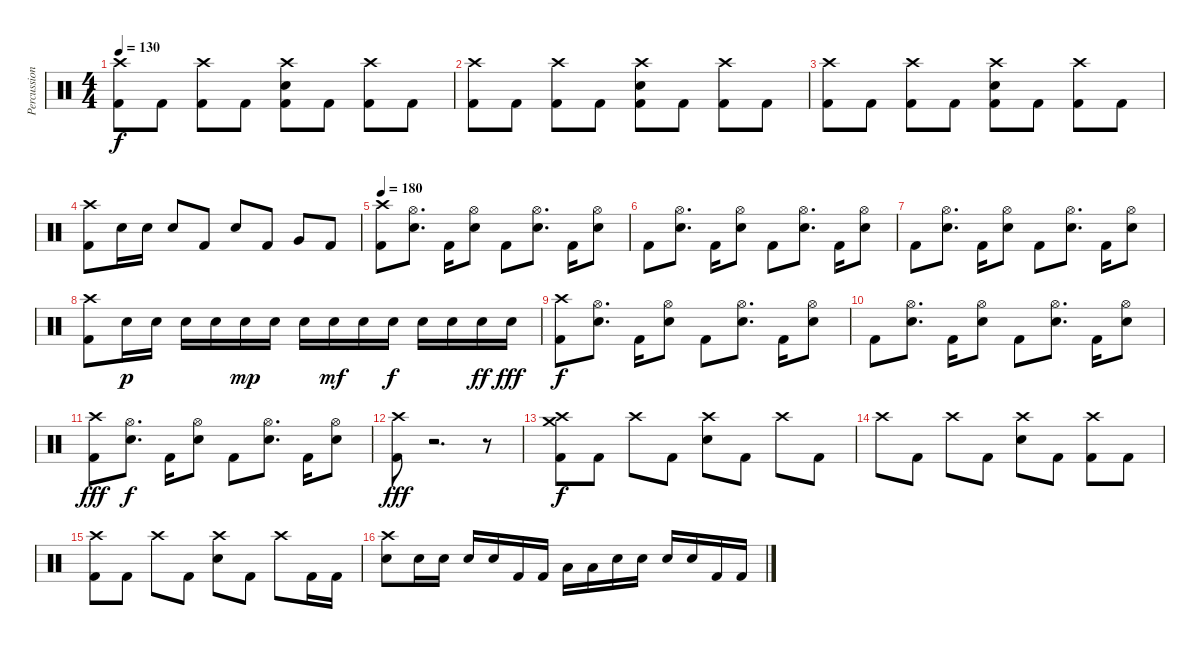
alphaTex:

\track ("Percussion" "Percussion") {instrument percussion}
\staff {score}
\articulation defaults
\ts (4 4)
\tempo 130
\clef neutral
\ks c
("Crash high (hit)" "Kick (hit) 2").8{dy f} "Kick (hit) 2".8 ("Crash high (hit)" "Kick (hit) 2").8 "Kick (hit) 2".8 ("Crash high (hit)" "Electric Snare (hit)" "Kick (hit) 2").8 "Kick (hit) 2".8 ("Crash high (hit)" "Kick (hit) 2").8 "Kick (hit) 2".8 |
("Crash high (hit)" "Kick (hit) 2").8 "Kick (hit) 2".8 ("Crash high (hit)" "Kick (hit) 2").8 "Kick (hit) 2".8 ("Crash high (hit)" "Electric Snare (hit)" "Kick (hit) 2").8 "Kick (hit) 2".8 ("Crash high (hit)" "Kick (hit) 2").8 "Kick (hit) 2".8 |
("Crash high (hit)" "Kick (hit) 2").8 "Kick (hit) 2".8 ("Crash high (hit)" "Kick (hit) 2").8 "Kick (hit) 2".8 ("Crash high (hit)" "Electric Snare (hit)" "Kick (hit) 2").8 "Kick (hit) 2".8 ("Crash high (hit)" "Kick (hit) 2").8 "Kick (hit) 2".8 |
("Crash high (hit)" "Kick (hit) 2").8 "Electric Snare (hit)".16 "Electric Snare (hit)".16 "Electric Snare (hit)".8 "Kick (hit) 2".8 "Electric Snare (hit)".8 "Kick (hit) 2".8 "Very Low Tom (hit)".8 "Kick (hit) 2".8 |
\tempo 180
("Crash high (hit)" "Kick (hit) 2").8 ("Hi-Hat (open)" "Electric Snare (hit)").8{d} "Kick (hit) 2".16 ("Hi-Hat (open)" "Electric Snare (hit)").8 "Kick (hit) 2".8 ("Hi-Hat (open)" "Electric Snare (hit)").8{d} "Kick (hit) 2".16 ("Hi-Hat (open)" "Electric Snare (hit)").8 |
"Kick (hit) 2".8 ("Hi-Hat (open)" "Electric Snare (hit)").8{d} "Kick (hit) 2".16 ("Hi-Hat (open)" "Electric Snare (hit)").8 "Kick (hit) 2".8 ("Hi-Hat (open)" "Electric Snare (hit)").8{d} "Kick (hit) 2".16 ("Hi-Hat (open)" "Electric Snare (hit)").8 |
"Kick (hit) 2".8 ("Hi-Hat (open)" "Electric Snare (hit)").8{d} "Kick (hit) 2".16 ("Hi-Hat (open)" "Electric Snare (hit)").8 "Kick (hit) 2".8 ("Hi-Hat (open)" "Electric Snare (hit)").8{d} "Kick (hit) 2".16 ("Hi-Hat (open)" "Electric Snare (hit)").8 |
("Crash high (hit)" "Kick (hit) 2").8 "Electric Snare (hit)".16{dy p} "Electric Snare (hit)".16 "Electric Snare (hit)".16 "Electric Snare (hit)".16 "Electric Snare (hit)".16{dy mp} "Electric Snare (hit)".16 "Electric Snare (hit)".16 "Electric Snare (hit)".16{dy mf} "Electric Snare (hit)".16 "Electric Snare (hit)".16{dy f} "Electric Snare (hit)".16 "Electric Snare (hit)".16 "Electric Snare (hit)".16{dy ff} "Electric Snare (hit)".16{dy fff} |
("Crash high (hit)" "Kick (hit) 2").8{dy f} ("Hi-Hat (open)" "Electric Snare (hit)").8{d} "Kick (hit) 2".16 ("Hi-Hat (open)" "Electric Snare (hit)").8 "Kick (hit) 2".8 ("Hi-Hat (open)" "Electric Snare (hit)").8{d} "Kick (hit) 2".16 ("Hi-Hat (open)" "Electric Snare (hit)").8 |
"Kick (hit) 2".8 ("Hi-Hat (open)" "Electric Snare (hit)").8{d} "Kick (hit) 2".16 ("Hi-Hat (open)" "Electric Snare (hit)").8 "Kick (hit) 2".8 ("Hi-Hat (open)" "Electric Snare (hit)").8{d} "Kick (hit) 2".16 ("Hi-Hat (open)" "Electric Snare (hit)").8 |
("Crash high (hit)" "Kick (hit) 2").8{dy fff} ("Hi-Hat (open)" "Electric Snare (hit)").8{d dy f} "Kick (hit) 2".16 ("Hi-Hat (open)" "Electric Snare (hit)").8 "Kick (hit) 2".8 ("Hi-Hat (open)" "Electric Snare (hit)").8{d} "Kick (hit) 2".16 ("Hi-Hat (open)" "Electric Snare (hit)").8 |
("Crash high (hit)" "Kick (hit) 2").8{dy fff} r.2{d volume 0} r.8 |
("Crash high (hit)" "Crash medium (hit)" "Kick (hit) 2").8{dy f volume 13} "Kick (hit) 2".8 "Crash high (hit)".8 "Kick (hit) 2".8 ("Crash high (hit)" "Electric Snare (hit)").8 "Kick (hit) 2".8 "Crash high (hit)".8 "Kick (hit) 2".8 |
"Crash high (hit)".8 "Kick (hit) 2".8 "Crash high (hit)".8 "Kick (hit) 2".8 ("Crash high (hit)" "Electric Snare (hit)").8 "Kick (hit) 2".8 ("Crash high (hit)" "Kick (hit) 2").8 "Kick (hit) 2".8 |
("Crash high (hit)" "Kick (hit) 2").8 "Kick (hit) 2".8 "Crash high (hit)".8 "Kick (hit) 2".8 ("Crash high (hit)" "Electric Snare (hit)").8 "Kick (hit) 2".8 "Crash high (hit)".8 "Kick (hit) 2".16 "Kick (hit) 2".16 |
("Crash high (hit)" "Electric Snare (hit)").8 "Electric Snare (hit)".16 "Electric Snare (hit)".16 "Electric Snare (hit)".16 "Electric Snare (hit)".16 "Kick (hit) 2".16 "Kick (hit) 2".16 "Low Tom (hit)".16 "Low Tom (hit)".16 "Electric Snare (hit)".16 "Electric Snare (hit)".16 "Electric Snare (hit)".16 "Electric Snare (hit)".16 "Kick (hit) 2".16 "Kick (hit) 2".16
